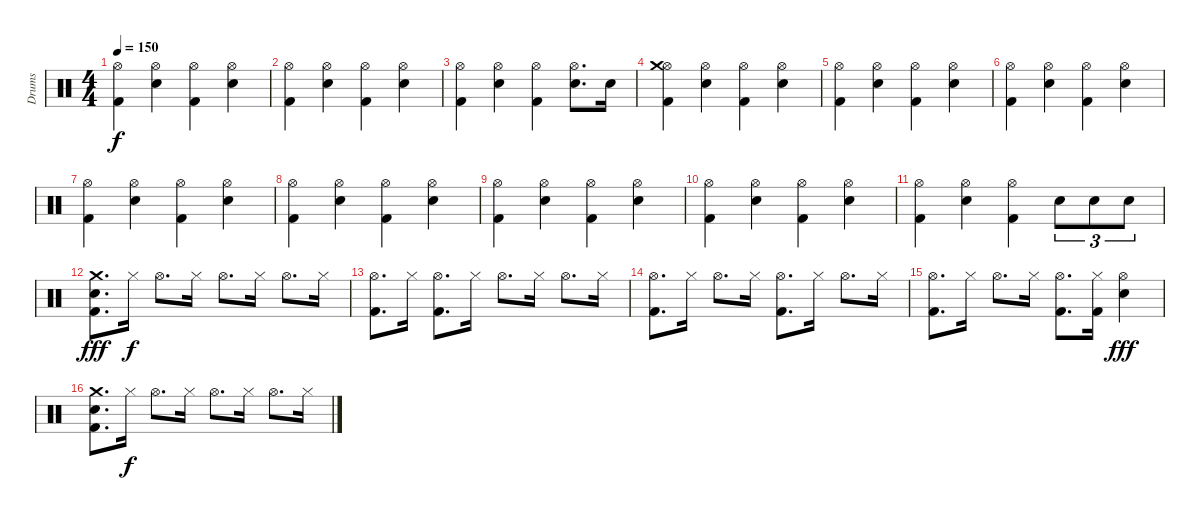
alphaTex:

\track ("Drums" "Drums") {instrument percussion}
\staff {score}
\articulation defaults
\ts (4 4)
\tempo 150
\clef neutral
\ks c
("Hi-Hat (open)" "Kick (hit) 2").4{dy f} ("Hi-Hat (open)" "Snare (hit) 2").4 ("Hi-Hat (open)" "Kick (hit) 2").4 ("Hi-Hat (open)" "Snare (hit) 2").4 |
("Hi-Hat (open)" "Kick (hit) 2").4 ("Hi-Hat (open)" "Snare (hit) 2").4 ("Hi-Hat (open)" "Kick (hit) 2").4 ("Hi-Hat (open)" "Snare (hit) 2").4 |
("Hi-Hat (open)" "Kick (hit) 2").4 ("Hi-Hat (open)" "Snare (hit) 2").4 ("Hi-Hat (open)" "Kick (hit) 2").4 ("Hi-Hat (open)" "Snare (hit) 2").8{d} "Snare (hit) 2".16 |
("Hi-Hat (open)" "Crash medium (hit)" "Kick (hit) 2").4 ("Hi-Hat (open)" "Snare (hit) 2").4 ("Hi-Hat (open)" "Kick (hit) 2").4 ("Hi-Hat (open)" "Snare (hit) 2").4 |
("Hi-Hat (open)" "Kick (hit) 2").4 ("Hi-Hat (open)" "Snare (hit) 2").4 ("Hi-Hat (open)" "Kick (hit) 2").4 ("Hi-Hat (open)" "Snare (hit) 2").4 |
("Hi-Hat (open)" "Kick (hit) 2").4 ("Hi-Hat (open)" "Snare (hit) 2").4 ("Hi-Hat (open)" "Kick (hit) 2").4 ("Hi-Hat (open)" "Snare (hit) 2").4 |
("Hi-Hat (open)" "Kick (hit) 2").4 ("Hi-Hat (open)" "Snare (hit) 2").4 ("Hi-Hat (open)" "Kick (hit) 2").4 ("Hi-Hat (open)" "Snare (hit) 2").4 |
("Hi-Hat (open)" "Kick (hit) 2").4 ("Hi-Hat (open)" "Snare (hit) 2").4 ("Hi-Hat (open)" "Kick (hit) 2").4 ("Hi-Hat (open)" "Snare (hit) 2").4 |
("Hi-Hat (open)" "Kick (hit) 2").4 ("Hi-Hat (open)" "Snare (hit) 2").4 ("Hi-Hat (open)" "Kick (hit) 2").4 ("Hi-Hat (open)" "Snare (hit) 2").4 |
("Hi-Hat (open)" "Kick (hit) 2").4 ("Hi-Hat (open)" "Snare (hit) 2").4 ("Hi-Hat (open)" "Kick (hit) 2").4 ("Hi-Hat (open)" "Snare (hit) 2").4 |
("Hi-Hat (open)" "Kick (hit) 2").4 ("Hi-Hat (open)" "Snare (hit) 2").4 ("Hi-Hat (open)" "Kick (hit) 2").4 "Snare (hit) 2".8{tu (3 2)} "Snare (hit) 2".8{tu (3 2)} "Snare (hit) 2".8{tu (3 2)} |
("Crash medium (hit)" "Snare (hit) 2" "Kick (hit) 2").8{d dy fff volume 9} "Hi-Hat (closed)".16{dy f} "Hi-Hat (open)".8{d} "Hi-Hat (closed)".16 "Hi-Hat (open)".8{d} "Hi-Hat (closed)".16 "Hi-Hat (open)".8{d} "Hi-Hat (closed)".16 |
("Hi-Hat (open)" "Kick (hit) 2").8{d volume 9} "Hi-Hat (closed)".16 ("Hi-Hat (open)" "Kick (hit) 2").8{d} "Hi-Hat (closed)".16 "Hi-Hat (open)".8{d} "Hi-Hat (closed)".16 "Hi-Hat (open)".8{d} "Hi-Hat (closed)".16 |
("Hi-Hat (open)" "Kick (hit) 2").8{d volume 9} "Hi-Hat (closed)".16 "Hi-Hat (open)".8{d} "Hi-Hat (closed)".16 ("Hi-Hat (open)" "Kick (hit) 2").8{d} "Hi-Hat (closed)".16 "Hi-Hat (open)".8{d} "Hi-Hat (closed)".16 |
("Hi-Hat (open)" "Kick (hit) 2").8{d volume 9} "Hi-Hat (closed)".16 "Hi-Hat (open)".8{d} "Hi-Hat (closed)".16 ("Hi-Hat (open)" "Kick (hit) 2").8{d} ("Hi-Hat (closed)" "Kick (hit) 2").16 ("Hi-Hat (open)" "Snare (hit) 2").4{dy fff} |
("Crash medium (hit)" "Snare (hit) 2" "Kick (hit) 2").8{d volume 9} "Hi-Hat (closed)".16{dy f} "Hi-Hat (open)".8{d} "Hi-Hat (closed)".16 "Hi-Hat (open)".8{d} "Hi-Hat (closed)".16 "Hi-Hat (open)".8{d} "Hi-Hat (closed)".16
